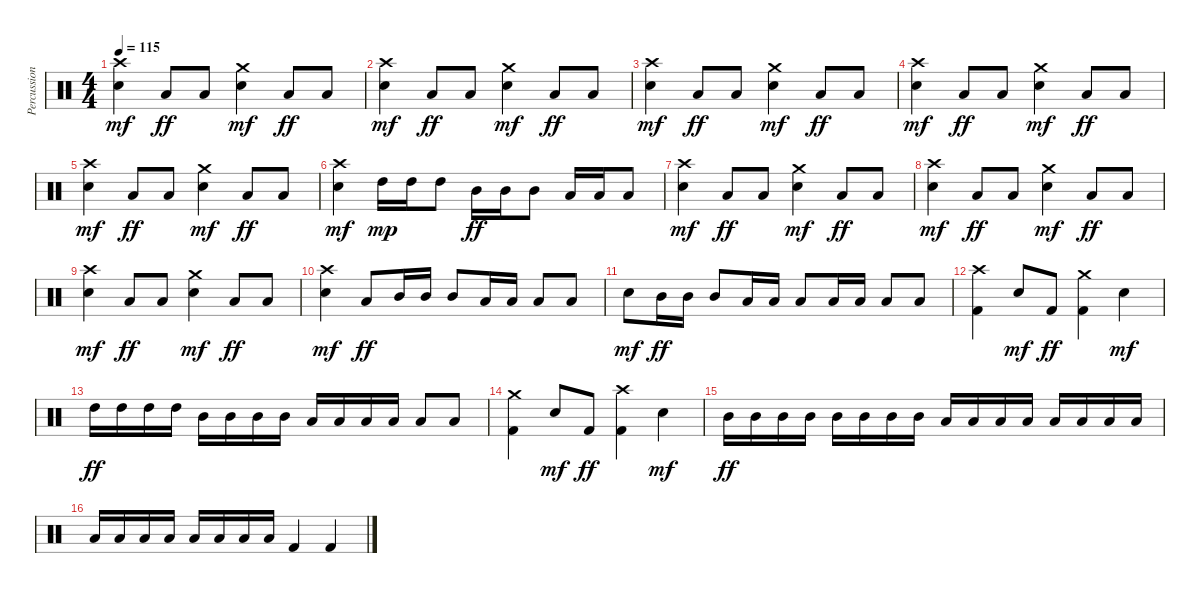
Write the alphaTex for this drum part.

\track ("Percussion" "Percussion") {instrument percussion}
\staff {score}
\articulation defaults
\ts (4 4)
\tempo 115
\clef neutral
\ks c
("Crash high (hit)" "Snare (hit) 2").4{dy mf} "Low Floor Tom (hit)".8{dy ff} "Low Floor Tom (hit)".8 ("Crash medium (hit)" "Snare (hit) 2").4{dy mf} "Low Floor Tom (hit)".8{dy ff} "Low Floor Tom (hit)".8 |
("Crash high (hit)" "Snare (hit) 2").4{dy mf} "Low Floor Tom (hit)".8{dy ff} "Low Floor Tom (hit)".8 ("Crash medium (hit)" "Snare (hit) 2").4{dy mf} "Low Floor Tom (hit)".8{dy ff} "Low Floor Tom (hit)".8 |
("Crash high (hit)" "Snare (hit) 2").4{dy mf} "Low Floor Tom (hit)".8{dy ff} "Low Floor Tom (hit)".8 ("Crash medium (hit)" "Snare (hit) 2").4{dy mf} "Low Floor Tom (hit)".8{dy ff} "Low Floor Tom (hit)".8 |
("Crash high (hit)" "Snare (hit) 2").4{dy mf} "Low Floor Tom (hit)".8{dy ff} "Low Floor Tom (hit)".8 ("Crash medium (hit)" "Snare (hit) 2").4{dy mf} "Low Floor Tom (hit)".8{dy ff} "Low Floor Tom (hit)".8 |
("Crash high (hit)" "Snare (hit) 2").4{dy mf} "Low Floor Tom (hit)".8{dy ff} "Low Floor Tom (hit)".8 ("Crash medium (hit)" "Snare (hit) 2").4{dy mf} "Low Floor Tom (hit)".8{dy ff} "Low Floor Tom (hit)".8 |
("Crash high (hit)" "Snare (hit) 2").4{dy mf} "High Tom (hit)".16{dy mp} "High Tom (hit)".16 "High Tom (hit)".8 "Mid Tom (hit)".16{dy ff} "Mid Tom (hit)".16 "Mid Tom (hit)".8 "Low Tom (hit)".16 "Low Tom (hit)".16 "Low Tom (hit)".8 |
("Crash high (hit)" "Snare (hit) 2").4{dy mf} "Low Floor Tom (hit)".8{dy ff} "Low Floor Tom (hit)".8 ("Crash medium (hit)" "Snare (hit) 2").4{dy mf} "Low Floor Tom (hit)".8{dy ff} "Low Floor Tom (hit)".8 |
("Crash high (hit)" "Snare (hit) 2").4{dy mf} "Low Floor Tom (hit)".8{dy ff} "Low Floor Tom (hit)".8 ("Crash medium (hit)" "Snare (hit) 2").4{dy mf} "Low Floor Tom (hit)".8{dy ff} "Low Floor Tom (hit)".8 |
("Crash high (hit)" "Snare (hit) 2").4{dy mf} "Low Floor Tom (hit)".8{dy ff} "Low Floor Tom (hit)".8 ("Crash medium (hit)" "Snare (hit) 2").4{dy mf} "Low Floor Tom (hit)".8{dy ff} "Low Floor Tom (hit)".8 |
("Crash high (hit)" "Snare (hit) 2").4{dy mf} "Low Floor Tom (hit)".8{dy ff} "Mid Tom (hit)".16 "Mid Tom (hit)".16 "Mid Tom (hit)".8 "Low Tom (hit)".16 "Low Tom (hit)".16 "Low Tom (hit)".8 "Low Floor Tom (hit)".8 |
"Snare (hit) 2".8{dy mf} "Mid Tom (hit)".16{dy ff} "Mid Tom (hit)".16 "Mid Tom (hit)".8 "Low Tom (hit)".16 "Low Tom (hit)".16 "Low Tom (hit)".8 "Low Floor Tom (hit)".16 "Low Floor Tom (hit)".16 "Low Floor Tom (hit)".8 "Low Floor Tom (hit)".8 |
("Crash high (hit)" "Kick (hit) 2").4 "Snare (hit) 2".8{dy mf} "Kick (hit) 2".8{dy ff} ("Crash medium (hit)" "Kick (hit) 2").4 "Snare (hit) 2".4{dy mf} |
"High Tom (hit)".16{dy ff} "High Tom (hit)".16 "High Tom (hit)".16 "High Tom (hit)".16 "Mid Tom (hit)".16 "Mid Tom (hit)".16 "Mid Tom (hit)".16 "Mid Tom (hit)".16 "Low Tom (hit)".16 "Low Tom (hit)".16 "Low Tom (hit)".16 "Low Tom (hit)".16 "Low Floor Tom (hit)".8 "Low Floor Tom (hit)".8 |
("Crash medium (hit)" "Kick (hit) 2").4 "Snare (hit) 2".8{dy mf} "Kick (hit) 2".8{dy ff} ("Crash high (hit)" "Kick (hit) 2").4 "Snare (hit) 2".4{dy mf} |
"Mid Tom (hit)".16{dy ff} "Mid Tom (hit)".16 "Mid Tom (hit)".16 "Mid Tom (hit)".16 "Mid Tom (hit)".16 "Mid Tom (hit)".16 "Mid Tom (hit)".16 "Mid Tom (hit)".16 "Low Tom (hit)".16 "Low Tom (hit)".16 "Low Tom (hit)".16 "Low Tom (hit)".16 "Low Tom (hit)".16 "Low Tom (hit)".16 "Low Tom (hit)".16 "Low Tom (hit)".16 |
"Low Floor Tom (hit)".16 "Low Floor Tom (hit)".16 "Low Floor Tom (hit)".16 "Low Floor Tom (hit)".16 "Low Floor Tom (hit)".16 "Low Floor Tom (hit)".16 "Low Floor Tom (hit)".16 "Low Floor Tom (hit)".16 "Kick (hit) 2".4 "Kick (hit) 2".4
